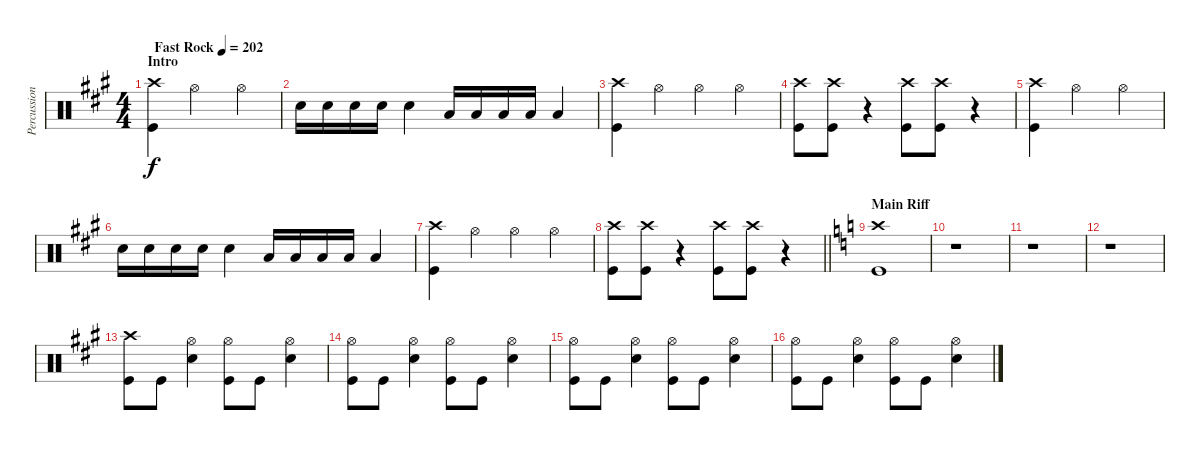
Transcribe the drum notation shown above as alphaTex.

\track ("Percussion" "Percussion") {instrument percussion}
\staff {score}
\articulation defaults
\ts (4 4)
\section ("" "Intro")
\tempo (202 "Fast Rock")
\clef neutral
\ks a
("Crash high (hit)" "Kick (hit)").4{dy f} "Hi-Hat (open)".2 "Hi-Hat (open)".4 |
"Electric Snare (hit)".16 "Electric Snare (hit)".16 "Electric Snare (hit)".16 "Electric Snare (hit)".16 "Electric Snare (hit)".4 "Low Floor Tom (hit)".16 "Low Floor Tom (hit)".16 "Low Floor Tom (hit)".16 "Low Floor Tom (hit)".16 "Low Floor Tom (hit)".4 |
("Crash high (hit)" "Kick (hit)").4 "Hi-Hat (open)".4 "Hi-Hat (open)".4 "Hi-Hat (open)".4 |
("Crash high (hit)" "Kick (hit)").8 ("Crash high (hit)" "Kick (hit)").8 r.4 ("Crash high (hit)" "Kick (hit)").8 ("Crash high (hit)" "Kick (hit)").8 r.4 |
("Crash high (hit)" "Kick (hit)").4 "Hi-Hat (open)".2 "Hi-Hat (open)".4 |
"Electric Snare (hit)".16 "Electric Snare (hit)".16 "Electric Snare (hit)".16 "Electric Snare (hit)".16 "Electric Snare (hit)".4 "Low Floor Tom (hit)".16 "Low Floor Tom (hit)".16 "Low Floor Tom (hit)".16 "Low Floor Tom (hit)".16 "Low Floor Tom (hit)".4 |
("Crash high (hit)" "Kick (hit)").4 "Hi-Hat (open)".4 "Hi-Hat (open)".4 "Hi-Hat (open)".4 |
\barLineRight lightlight
("Crash high (hit)" "Kick (hit)").8 ("Crash high (hit)" "Kick (hit)").8 r.4 ("Crash high (hit)" "Kick (hit)").8 ("Crash high (hit)" "Kick (hit)").8 r.4 |
\section ("" "Main Riff")
\ks c
("Crash high (hit)" "Kick (hit)").1 |
r.1 |
r.1 |
r.1 |
\ks a
("Crash high (hit)" "Kick (hit)").8 "Kick (hit)".8 ("Hi-Hat (open)" "Electric Snare (hit)").4 ("Hi-Hat (open)" "Kick (hit)").8 "Kick (hit)".8 ("Hi-Hat (open)" "Electric Snare (hit)").4 |
("Hi-Hat (open)" "Kick (hit)").8 "Kick (hit)".8 ("Hi-Hat (open)" "Electric Snare (hit)").4 ("Hi-Hat (open)" "Kick (hit)").8 "Kick (hit)".8 ("Hi-Hat (open)" "Electric Snare (hit)").4 |
("Hi-Hat (open)" "Kick (hit)").8 "Kick (hit)".8 ("Hi-Hat (open)" "Electric Snare (hit)").4 ("Hi-Hat (open)" "Kick (hit)").8 "Kick (hit)".8 ("Hi-Hat (open)" "Electric Snare (hit)").4 |
("Hi-Hat (open)" "Kick (hit)").8 "Kick (hit)".8 ("Hi-Hat (open)" "Electric Snare (hit)").4 ("Hi-Hat (open)" "Kick (hit)").8 "Kick (hit)".8 ("Hi-Hat (open)" "Electric Snare (hit)").4
